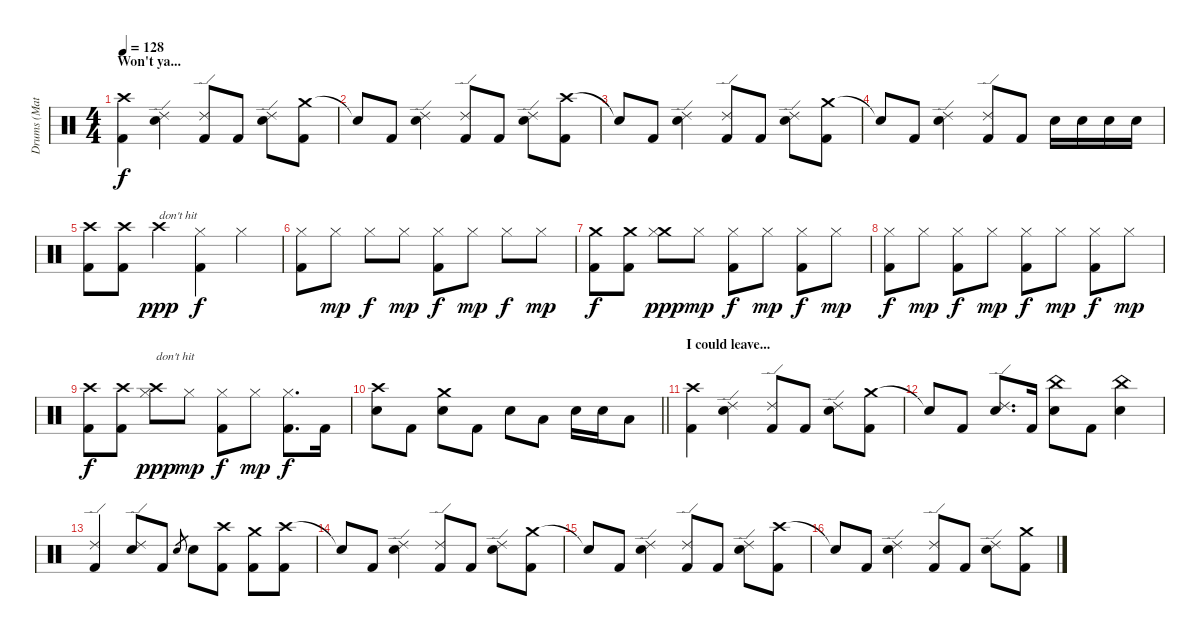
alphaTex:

\track ("Drums (Matt)" "Drums (Mat") {instrument percussion}
\staff {score}
\articulation defaults
\ts (4 4)
\section ("" "Won't ya...")
\tempo 128
\clef neutral
\ks c
("Crash high (hit)" "Kick (hit) 2").4{dy f} ("Ride (edge) 2" "Snare (hit) 2").4 ("Ride (edge) 2" "Kick (hit) 2").8 "Kick (hit) 2".8 ("Ride (edge) 2" "Snare (hit) 2").8 ("Crash medium (hit)" "Kick (hit) 2").8 |
"Snare (hit)"{t}.8 "Kick (hit) 2".8 ("Ride (edge) 2" "Snare (hit) 2").4 ("Ride (edge) 2" "Kick (hit) 2").8 "Kick (hit) 2".8 ("Ride (edge) 2" "Snare (hit) 2").8 ("Crash high (hit)" "Kick (hit) 2").8 |
"Snare (hit)"{t}.8 "Kick (hit) 2".8 ("Ride (edge) 2" "Snare (hit) 2").4 ("Ride (edge) 2" "Kick (hit) 2").8 "Kick (hit) 2".8 ("Ride (edge) 2" "Snare (hit) 2").8 ("Crash medium (hit)" "Kick (hit) 2").8 |
"Snare (hit)"{t}.8 "Kick (hit) 2".8 ("Ride (edge) 2" "Snare (hit) 2").4 ("Ride (edge) 2" "Kick (hit) 2").8 "Kick (hit) 2".8 "Snare (hit) 2".16 "Snare (hit) 2".16 "Snare (hit) 2".16 "Snare (hit) 2".16 |
("Crash high (hit)" "Kick (hit) 2").8 ("Crash high (hit)" "Kick (hit) 2").8 "Crash high (hit)".4{txt "don't hit" dy ppp} ("Hi-Hat (closed)" "Kick (hit) 2").4{dy f} "Hi-Hat (closed)".4 |
("Hi-Hat (closed)" "Kick (hit) 2").8 "Hi-Hat (closed)".8{dy mp} "Hi-Hat (closed)".8{dy f} "Hi-Hat (closed)".8{dy mp} ("Hi-Hat (closed)" "Kick (hit) 2").8{dy f} "Hi-Hat (closed)".8{dy mp} "Hi-Hat (closed)".8{dy f} "Hi-Hat (closed)".8{dy mp} |
("Crash medium (hit)" "Kick (hit) 2").8{dy f} ("Crash medium (hit)" "Kick (hit) 2").8 ("Crash medium (hit)" "Hi-Hat (closed)").8{dy ppp} "Hi-Hat (closed)".8{dy mp} ("Hi-Hat (closed)" "Kick (hit) 2").8{dy f} "Hi-Hat (closed)".8{dy mp} ("Hi-Hat (closed)" "Kick (hit) 2").8{dy f} "Hi-Hat (closed)".8{dy mp} |
("Hi-Hat (closed)" "Kick (hit) 2").8{dy f} "Hi-Hat (closed)".8{dy mp} ("Hi-Hat (closed)" "Kick (hit) 2").8{dy f} "Hi-Hat (closed)".8{dy mp} ("Hi-Hat (closed)" "Kick (hit) 2").8{dy f} "Hi-Hat (closed)".8{dy mp} ("Hi-Hat (closed)" "Kick (hit) 2").8{dy f} "Hi-Hat (closed)".8{dy mp} |
("Crash high (hit)" "Kick (hit) 2").8{dy f} ("Crash high (hit)" "Kick (hit) 2").8 ("Crash high (hit)" "Hi-Hat (closed)").8{txt "don't hit" dy ppp} "Hi-Hat (closed)".8{dy mp} ("Hi-Hat (closed)" "Kick (hit) 2").8{dy f} "Hi-Hat (closed)".8{dy mp} ("Hi-Hat (closed)" "Kick (hit) 2").8{d dy f} "Kick (hit) 2".16 |
\barLineRight lightlight
("Crash high (hit)" "Snare (hit) 2").8 "Kick (hit) 2".8 ("Crash medium (hit)" "Snare (hit) 2").8 "Kick (hit) 2".8 "Snare (hit) 2".8 "Low Tom (hit)".8 "Snare (hit) 2".16 "Snare (hit) 2".16 "Low Tom (hit)".8 |
\section ("" "I could leave...")
("Crash high (hit)" "Kick (hit) 2").4 ("Ride (edge) 2" "Snare (hit) 2").4 ("Ride (edge) 2" "Kick (hit) 2").8 "Kick (hit) 2".8 ("Ride (edge) 2" "Snare (hit) 2").8 ("Crash medium (hit)" "Kick (hit) 2").8 |
"Snare (hit)"{t}.8 "Kick (hit) 2".8 ("Ride (edge) 2" "Snare (hit) 2").8{d} "Kick (hit) 2".16 ("China (hit)" "Snare (hit) 2").8 "Kick (hit) 2".8 ("China (hit)" "Snare (hit) 2").4 |
("Ride (edge) 2" "Kick (hit) 2").4 ("Ride (edge) 2" "Snare (hit) 2").8 "Kick (hit) 2".8 "Snare (hit) 2".8{gr} "Snare (hit) 2".8 ("Crash high (hit)" "Kick (hit) 2").8 ("Crash medium (hit)" "Kick (hit) 2").8 ("Crash high (hit)" "Kick (hit) 2").8 |
"Snare (hit)"{t}.8 "Kick (hit) 2".8 ("Ride (edge) 2" "Snare (hit) 2").4 ("Ride (edge) 2" "Kick (hit) 2").8 "Kick (hit) 2".8 ("Ride (edge) 2" "Snare (hit) 2").8 ("Crash medium (hit)" "Kick (hit) 2").8 |
"Snare (hit)"{t}.8 "Kick (hit) 2".8 ("Ride (edge) 2" "Snare (hit) 2").4 ("Ride (edge) 2" "Kick (hit) 2").8 "Kick (hit) 2".8 ("Ride (edge) 2" "Snare (hit) 2").8 ("Crash high (hit)" "Kick (hit) 2").8 |
"Snare (hit)"{t}.8 "Kick (hit) 2".8 ("Ride (edge) 2" "Snare (hit) 2").4 ("Ride (edge) 2" "Kick (hit) 2").8 "Kick (hit) 2".8 ("Ride (edge) 2" "Snare (hit) 2").8 ("Crash medium (hit)" "Kick (hit) 2").8
